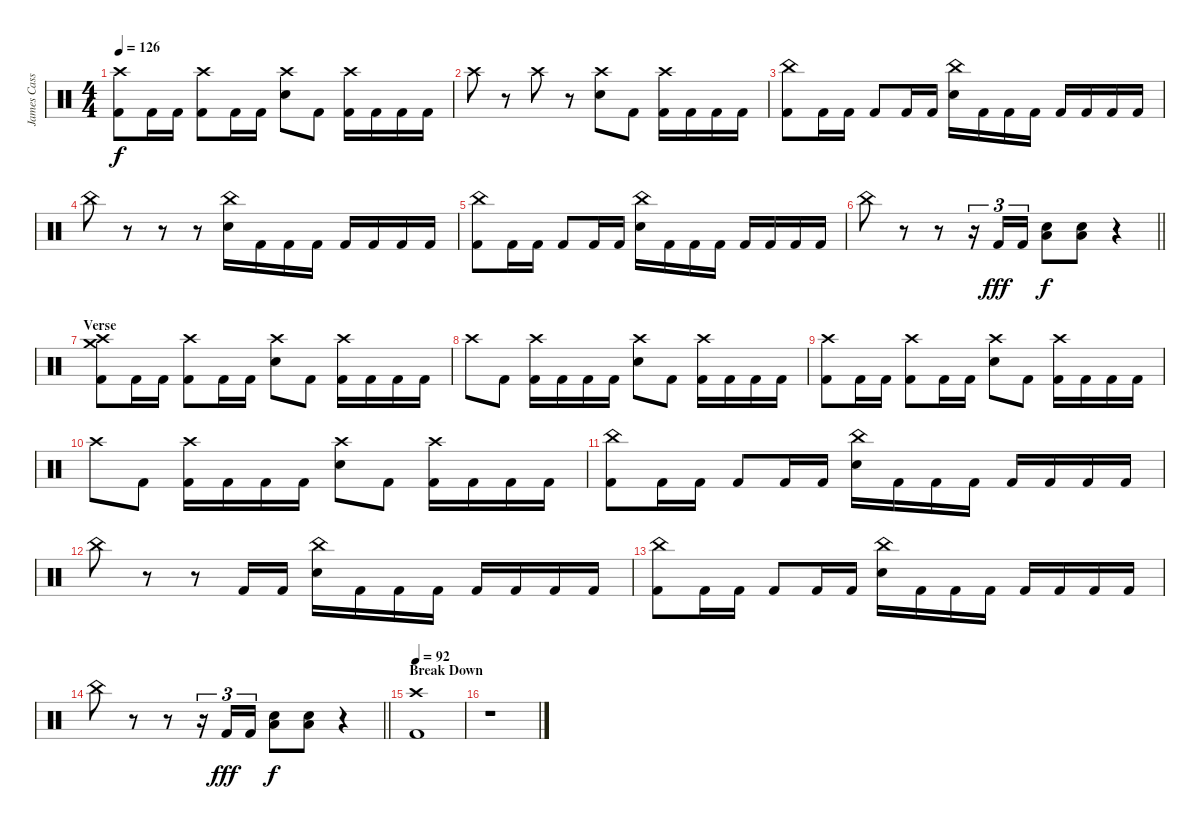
\track ("James Cassells (Drums)" "James Cass") {instrument percussion}
\staff {score}
\articulation defaults
\ts (4 4)
\tempo 126
\clef neutral
\ks c
("Crash high (hit)" "Kick (hit) 2").8{dy f} "Kick (hit) 2".16 "Kick (hit) 2".16 ("Crash high (hit)" "Kick (hit) 2").8 "Kick (hit) 2".16 "Kick (hit) 2".16 ("Crash high (hit)" "Snare (hit) 2").8 "Kick (hit) 2".8 ("Crash high (hit)" "Kick (hit) 2").16 "Kick (hit) 2".16 "Kick (hit) 2".16 "Kick (hit) 2".16 |
"Crash high (hit)".8 r.8 "Crash high (hit)".8 r.8 ("Crash high (hit)" "Snare (hit) 2").8 "Kick (hit) 2".8 ("Crash high (hit)" "Kick (hit) 2").16 "Kick (hit) 2".16 "Kick (hit) 2".16 "Kick (hit) 2".16 |
("China (hit)" "Kick (hit) 2").8 "Kick (hit) 2".16 "Kick (hit) 2".16 "Kick (hit) 2".8 "Kick (hit) 2".16 "Kick (hit) 2".16 ("China (hit)" "Snare (hit) 2").16 "Kick (hit) 2".16 "Kick (hit) 2".16 "Kick (hit) 2".16 "Kick (hit) 2".16 "Kick (hit) 2".16 "Kick (hit) 2".16 "Kick (hit) 2".16 |
"China (hit)".8 r.8 r.8 r.8 ("China (hit)" "Snare (hit) 2").16 "Kick (hit) 2".16 "Kick (hit) 2".16 "Kick (hit) 2".16 "Kick (hit) 2".16 "Kick (hit) 2".16 "Kick (hit) 2".16 "Kick (hit) 2".16 |
("China (hit)" "Kick (hit) 2").8 "Kick (hit) 2".16 "Kick (hit) 2".16 "Kick (hit) 2".8 "Kick (hit) 2".16 "Kick (hit) 2".16 ("China (hit)" "Snare (hit) 2").16 "Kick (hit) 2".16 "Kick (hit) 2".16 "Kick (hit) 2".16 "Kick (hit) 2".16 "Kick (hit) 2".16 "Kick (hit) 2".16 "Kick (hit) 2".16 |
\barLineRight lightlight "China (hit)".8
r.8 r.8 r.16{tu (3 2)} "Kick (hit) 2".16{tu (3 2) dy fff} "Kick (hit) 2".16{tu (3 2)} ("Snare (hit) 2" "Low Floor Tom (hit)").8{dy f} ("Snare (hit) 2" "Low Floor Tom (hit)").8 r.4 |
\section ("" "Verse")
("Crash high (hit)" "Crash medium (hit)" "Kick (hit) 2").8 "Kick (hit) 2".16 "Kick (hit) 2".16 ("Crash high (hit)" "Kick (hit) 2").8 "Kick (hit) 2".16 "Kick (hit) 2".16 ("Crash high (hit)" "Snare (hit) 2").8 "Kick (hit) 2".8 ("Crash high (hit)" "Kick (hit) 2").16 "Kick (hit) 2".16 "Kick (hit) 2".16 "Kick (hit) 2".16 |
"Crash high (hit)".8 "Kick (hit) 2".8 ("Crash high (hit)" "Kick (hit) 2").16 "Kick (hit) 2".16 "Kick (hit) 2".16 "Kick (hit) 2".16 ("Crash high (hit)" "Snare (hit) 2").8 "Kick (hit) 2".8 ("Crash high (hit)" "Kick (hit) 2").16 "Kick (hit) 2".16 "Kick (hit) 2".16 "Kick (hit) 2".16 |
("Crash high (hit)" "Kick (hit) 2").8 "Kick (hit) 2".16 "Kick (hit) 2".16 ("Crash high (hit)" "Kick (hit) 2").8 "Kick (hit) 2".16 "Kick (hit) 2".16 ("Crash high (hit)" "Snare (hit) 2").8 "Kick (hit) 2".8 ("Crash high (hit)" "Kick (hit) 2").16 "Kick (hit) 2".16 "Kick (hit) 2".16 "Kick (hit) 2".16 |
"Crash high (hit)".8 "Kick (hit) 2".8 ("Crash high (hit)" "Kick (hit) 2").16 "Kick (hit) 2".16 "Kick (hit) 2".16 "Kick (hit) 2".16 ("Crash high (hit)" "Snare (hit) 2").8 "Kick (hit) 2".8 ("Crash high (hit)" "Kick (hit) 2").16 "Kick (hit) 2".16 "Kick (hit) 2".16 "Kick (hit) 2".16 |
("China (hit)" "Kick (hit) 2").8 "Kick (hit) 2".16 "Kick (hit) 2".16 "Kick (hit) 2".8 "Kick (hit) 2".16 "Kick (hit) 2".16 ("China (hit)" "Snare (hit) 2").16 "Kick (hit) 2".16 "Kick (hit) 2".16 "Kick (hit) 2".16 "Kick (hit) 2".16 "Kick (hit) 2".16 "Kick (hit) 2".16 "Kick (hit) 2".16 |
"China (hit)".8 r.8 r.8 "Kick (hit) 2".16 "Kick (hit) 2".16 ("China (hit)" "Snare (hit) 2").16 "Kick (hit) 2".16 "Kick (hit) 2".16 "Kick (hit) 2".16 "Kick (hit) 2".16 "Kick (hit) 2".16 "Kick (hit) 2".16 "Kick (hit) 2".16 |
("China (hit)" "Kick (hit) 2").8 "Kick (hit) 2".16 "Kick (hit) 2".16 "Kick (hit) 2".8 "Kick (hit) 2".16 "Kick (hit) 2".16 ("China (hit)" "Snare (hit) 2").16 "Kick (hit) 2".16 "Kick (hit) 2".16 "Kick (hit) 2".16 "Kick (hit) 2".16 "Kick (hit) 2".16 "Kick (hit) 2".16 "Kick (hit) 2".16 |
\barLineRight lightlight "China (hit)".8
r.8 r.8 r.16{tu (3 2)} "Kick (hit) 2".16{tu (3 2) dy fff} "Kick (hit) 2".16{tu (3 2)} ("Snare (hit) 2" "Low Floor Tom (hit)").8{dy f} ("Snare (hit) 2" "Low Floor Tom (hit)").8 r.4 |
\section ("" "Break Down")
\tempo 92
("Crash high (hit)" "Kick (hit) 2").1 |
r.1
